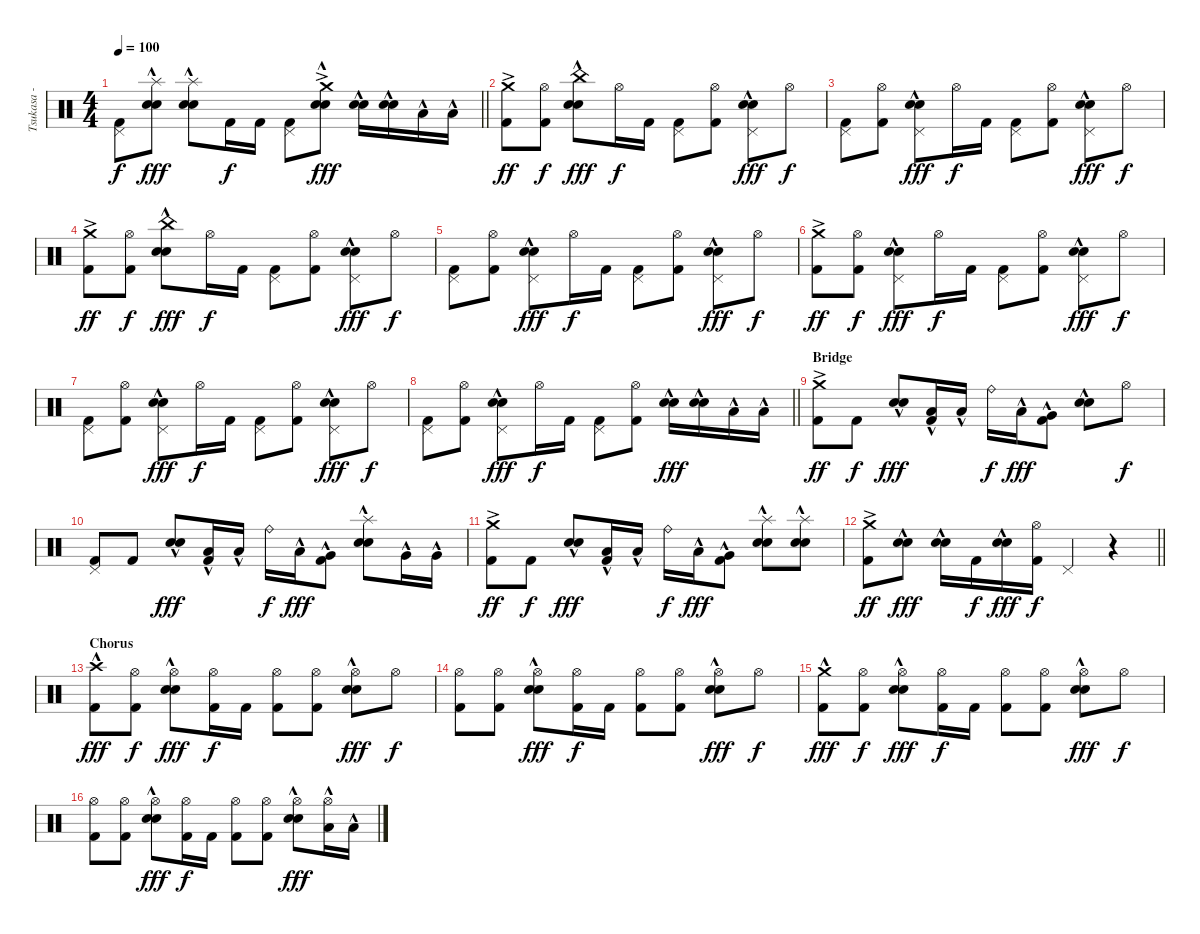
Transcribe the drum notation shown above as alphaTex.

\track ("Tsukasa - Drums" "Tsukasa - ") {instrument percussion}
\staff {score}
\articulation defaults
\ts (4 4)
\tempo 100
\clef neutral
\barLineRight lightlight
\ks c
("Pedal Hi-Hat (hit)" "Kick (hit) 2").8{dy f} ("Splash (hit)"{hac} "Electric Snare (hit)"{hac} "Snare (hit) 2"{hac}).8{dy fff} ("Splash (hit)"{hac} "Electric Snare (hit)"{hac} "Snare (hit) 2"{hac}).8 "Kick (hit) 2".16{dy f} "Kick (hit) 2".16 ("Pedal Hi-Hat (hit)" "Kick (hit) 2").8 ("Crash medium (hit)"{ac} "Electric Snare (hit)"{hac} "Snare (hit) 2"{hac}).8{dy fff} ("Electric Snare (hit)"{hac} "Snare (hit) 2"{hac}).16 ("Electric Snare (hit)"{hac} "Snare (hit) 2"{hac}).16 "Low Tom (hit)"{hac}.16 "Low Tom (hit)"{hac}.16 |
\section ("" "")
("Crash medium (hit)"{ac} "Kick (hit) 2").8{dy ff} ("Hi-Hat (open)" "Kick (hit) 2").8{dy f} ("China (hit)"{hac} "Electric Snare (hit)"{hac} "Snare (hit) 2"{hac}).8{dy fff} "Hi-Hat (open)".16{dy f} "Kick (hit) 2".16 ("Pedal Hi-Hat (hit)" "Kick (hit) 2").8 ("Hi-Hat (open)" "Kick (hit) 2").8 ("Pedal Hi-Hat (hit)" "Electric Snare (hit)"{hac} "Snare (hit) 2"{hac}).8{dy fff} "Hi-Hat (open)".8{dy f} |
("Pedal Hi-Hat (hit)" "Kick (hit) 2").8 ("Hi-Hat (open)" "Kick (hit) 2").8 ("Pedal Hi-Hat (hit)" "Electric Snare (hit)"{hac} "Snare (hit) 2"{hac}).8{dy fff} "Hi-Hat (open)".16{dy f} "Kick (hit) 2".16 ("Pedal Hi-Hat (hit)" "Kick (hit) 2").8 ("Hi-Hat (open)" "Kick (hit) 2").8 ("Pedal Hi-Hat (hit)" "Electric Snare (hit)"{hac} "Snare (hit) 2"{hac}).8{dy fff} "Hi-Hat (open)".8{dy f} |
("Crash medium (hit)"{ac} "Kick (hit) 2").8{dy ff} ("Hi-Hat (open)" "Kick (hit) 2").8{dy f} ("China (hit)"{hac} "Electric Snare (hit)"{hac} "Snare (hit) 2"{hac}).8{dy fff} "Hi-Hat (open)".16{dy f} "Kick (hit) 2".16 ("Pedal Hi-Hat (hit)" "Kick (hit) 2").8 ("Hi-Hat (open)" "Kick (hit) 2").8 ("Pedal Hi-Hat (hit)" "Electric Snare (hit)"{hac} "Snare (hit) 2"{hac}).8{dy fff} "Hi-Hat (open)".8{dy f} |
("Pedal Hi-Hat (hit)" "Kick (hit) 2").8 ("Hi-Hat (open)" "Kick (hit) 2").8 ("Pedal Hi-Hat (hit)" "Electric Snare (hit)"{hac} "Snare (hit) 2"{hac}).8{dy fff} "Hi-Hat (open)".16{dy f} "Kick (hit) 2".16 ("Pedal Hi-Hat (hit)" "Kick (hit) 2").8 ("Hi-Hat (open)" "Kick (hit) 2").8 ("Pedal Hi-Hat (hit)" "Electric Snare (hit)"{hac} "Snare (hit) 2"{hac}).8{dy fff} "Hi-Hat (open)".8{dy f} |
("Crash medium (hit)"{ac} "Kick (hit) 2").8{dy ff} ("Hi-Hat (open)" "Kick (hit) 2").8{dy f} ("Pedal Hi-Hat (hit)" "Electric Snare (hit)"{hac} "Snare (hit) 2"{hac}).8{dy fff} "Hi-Hat (open)".16{dy f} "Kick (hit) 2".16 ("Pedal Hi-Hat (hit)" "Kick (hit) 2").8 ("Hi-Hat (open)" "Kick (hit) 2").8 ("Pedal Hi-Hat (hit)" "Electric Snare (hit)"{hac} "Snare (hit) 2"{hac}).8{dy fff} "Hi-Hat (open)".8{dy f} |
("Pedal Hi-Hat (hit)" "Kick (hit) 2").8 ("Hi-Hat (open)" "Kick (hit) 2").8 ("Pedal Hi-Hat (hit)" "Electric Snare (hit)"{hac} "Snare (hit) 2"{hac}).8{dy fff} "Hi-Hat (open)".16{dy f} "Kick (hit) 2".16 ("Pedal Hi-Hat (hit)" "Kick (hit) 2").8 ("Hi-Hat (open)" "Kick (hit) 2").8 ("Pedal Hi-Hat (hit)" "Electric Snare (hit)"{hac} "Snare (hit) 2"{hac}).8{dy fff} "Hi-Hat (open)".8{dy f} |
\barLineRight lightlight
("Pedal Hi-Hat (hit)" "Kick (hit) 2").8 ("Hi-Hat (open)" "Kick (hit) 2").8 ("Pedal Hi-Hat (hit)" "Electric Snare (hit)"{hac} "Snare (hit) 2"{hac}).8{dy fff} "Hi-Hat (open)".16{dy f} "Kick (hit) 2".16 ("Pedal Hi-Hat (hit)" "Kick (hit) 2").8 ("Hi-Hat (open)" "Kick (hit) 2").8 ("Electric Snare (hit)"{hac} "Snare (hit) 2"{hac}).16{dy fff} ("Electric Snare (hit)"{hac} "Snare (hit) 2"{hac}).16 "Low Tom (hit)"{hac}.16 "Low Tom (hit)"{hac}.16 |
\section ("" "Bridge")
("Crash medium (hit)"{ac} "Kick (hit) 2").8{dy ff} "Kick (hit) 2".8{dy f} ("Electric Snare (hit)"{hac} "Snare (hit) 2"{hac}).8{dy fff} ("Low Tom (hit)"{hac} "Kick (hit) 2").16 "Low Tom (hit)"{hac}.16 "Ride (bell)".16{dy f} "Low Tom (hit)"{hac}.16{dy fff} ("Very Low Tom (hit)"{hac} "Kick (hit) 2").8 ("Electric Snare (hit)"{hac} "Snare (hit) 2"{hac}).8 "Hi-Hat (open)".8{dy f} |
("Pedal Hi-Hat (hit)" "Kick (hit) 2").8 "Kick (hit) 2".8 ("Electric Snare (hit)"{hac} "Snare (hit) 2"{hac}).8{dy fff} ("Low Tom (hit)"{hac} "Kick (hit) 2").16 "Low Tom (hit)"{hac}.16 "Ride (bell)".16{dy f} "Low Tom (hit)"{hac}.16{dy fff} ("Very Low Tom (hit)"{hac} "Kick (hit) 2").8 ("Splash (hit)"{hac} "Electric Snare (hit)"{hac} "Snare (hit) 2"{hac}).8 "Very Low Tom (hit)"{hac}.16 "Very Low Tom (hit)"{hac}.16 |
("Crash medium (hit)"{ac} "Kick (hit) 2").8{dy ff} "Kick (hit) 2".8{dy f} ("Electric Snare (hit)"{hac} "Snare (hit) 2"{hac}).8{dy fff} ("Low Tom (hit)"{hac} "Kick (hit) 2").16 "Low Tom (hit)"{hac}.16 "Ride (bell)".16{dy f} "Low Tom (hit)"{hac}.16{dy fff} ("Very Low Tom (hit)"{hac} "Kick (hit) 2").8 ("Splash (hit)"{hac} "Electric Snare (hit)"{hac} "Snare (hit) 2"{hac}).8 ("Splash (hit)"{hac} "Electric Snare (hit)"{hac} "Snare (hit) 2"{hac}).8 |
\barLineRight lightlight
("Crash medium (hit)"{ac} "Kick (hit) 2").8{dy ff} ("Electric Snare (hit)"{hac} "Snare (hit) 2"{hac}).8{dy fff} ("Electric Snare (hit)"{hac} "Snare (hit) 2"{hac}).16 "Kick (hit) 2".16{dy f} ("Electric Snare (hit)"{hac} "Snare (hit) 2"{hac}).16{dy fff} ("Hi-Hat (open)" "Kick (hit) 2").16{dy f} "Pedal Hi-Hat (hit)".4 r.4 |
\section ("" "Chorus")
("Crash high (hit)"{hac} "Kick (hit) 2").8{dy fff} ("Hi-Hat (open)" "Kick (hit) 2").8{dy f} ("Hi-Hat (open)" "Electric Snare (hit)"{hac} "Snare (hit) 2"{hac}).8{dy fff} ("Hi-Hat (open)" "Kick (hit) 2").16{dy f} "Kick (hit) 2".16 ("Hi-Hat (open)" "Kick (hit) 2").8 ("Hi-Hat (open)" "Kick (hit) 2").8 ("Hi-Hat (open)" "Electric Snare (hit)"{hac} "Snare (hit) 2"{hac}).8{dy fff} "Hi-Hat (open)".8{dy f} |
("Hi-Hat (open)" "Kick (hit) 2").8 ("Hi-Hat (open)" "Kick (hit) 2").8 ("Hi-Hat (open)" "Electric Snare (hit)"{hac} "Snare (hit) 2"{hac}).8{dy fff} ("Hi-Hat (open)" "Kick (hit) 2").16{dy f} "Kick (hit) 2".16 ("Hi-Hat (open)" "Kick (hit) 2").8 ("Hi-Hat (open)" "Kick (hit) 2").8 ("Hi-Hat (open)" "Electric Snare (hit)"{hac} "Snare (hit) 2"{hac}).8{dy fff} "Hi-Hat (open)".8{dy f} |
("Crash medium (hit)"{hac} "Kick (hit) 2").8{dy fff} ("Hi-Hat (open)" "Kick (hit) 2").8{dy f} ("Hi-Hat (open)" "Electric Snare (hit)"{hac} "Snare (hit) 2"{hac}).8{dy fff} ("Hi-Hat (open)" "Kick (hit) 2").16{dy f} "Kick (hit) 2".16 ("Hi-Hat (open)" "Kick (hit) 2").8 ("Hi-Hat (open)" "Kick (hit) 2").8 ("Hi-Hat (open)" "Electric Snare (hit)"{hac} "Snare (hit) 2"{hac}).8{dy fff} "Hi-Hat (open)".8{dy f} |
("Hi-Hat (open)" "Kick (hit) 2").8 ("Hi-Hat (open)" "Kick (hit) 2").8 ("Hi-Hat (open)" "Electric Snare (hit)"{hac} "Snare (hit) 2"{hac}).8{dy fff} ("Hi-Hat (open)" "Kick (hit) 2").16{dy f} "Kick (hit) 2".16 ("Hi-Hat (open)" "Kick (hit) 2").8 ("Hi-Hat (open)" "Kick (hit) 2").8 ("Hi-Hat (open)" "Electric Snare (hit)"{hac} "Snare (hit) 2"{hac}).8{dy fff} ("Hi-Hat (open)" "Low Tom (hit)"{hac}).16 "Low Tom (hit)"{hac}.16
